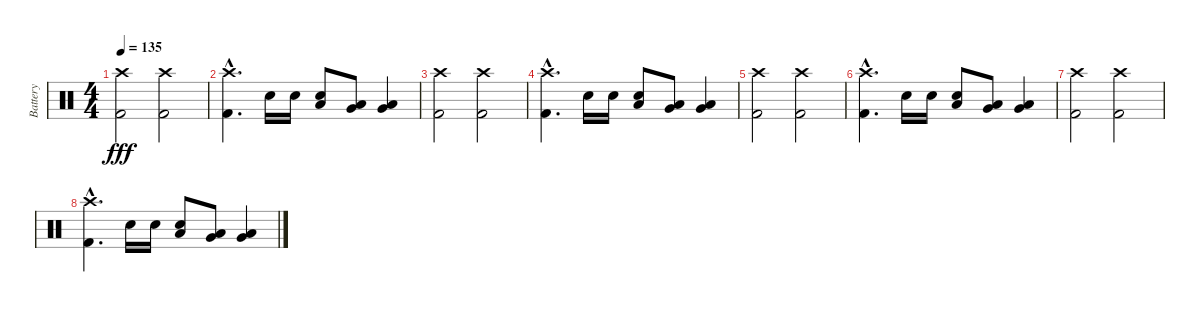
\track ("Battery" "Battery") {instrument percussion}
\staff {score}
\articulation defaults
\ts (4 4)
\tempo 135
\clef neutral
\ks c
("Crash high (hit)" "Kick (hit) 2").2{dy fff} ("Crash high (hit)" "Kick (hit) 2").2 |
("Crash high (hit)"{hac} "Kick (hit) 2"{hac}).4{d} "Electric Snare (hit)".16 "Electric Snare (hit)".16 ("Low Tom (hit)" "Electric Snare (hit)").8 ("Very Low Tom (hit)" "Low Tom (hit)").8 ("Low Floor Tom (hit)" "Very Low Tom (hit)").4 |
("Crash high (hit)" "Kick (hit) 2").2 ("Crash high (hit)" "Kick (hit) 2").2 |
("Crash high (hit)"{hac} "Kick (hit) 2"{hac}).4{d} "Electric Snare (hit)".16 "Electric Snare (hit)".16 ("Low Tom (hit)" "Electric Snare (hit)").8 ("Very Low Tom (hit)" "Low Tom (hit)").8 ("Low Floor Tom (hit)" "Very Low Tom (hit)").4 |
("Crash high (hit)" "Kick (hit) 2").2 ("Crash high (hit)" "Kick (hit) 2").2 |
("Crash high (hit)"{hac} "Kick (hit) 2"{hac}).4{d} "Electric Snare (hit)".16 "Electric Snare (hit)".16 ("Low Tom (hit)" "Electric Snare (hit)").8 ("Very Low Tom (hit)" "Low Tom (hit)").8 ("Low Floor Tom (hit)" "Very Low Tom (hit)").4 |
("Crash high (hit)" "Kick (hit) 2").2 ("Crash high (hit)" "Kick (hit) 2").2 |
("Crash high (hit)"{hac} "Kick (hit) 2"{hac}).4{d} "Electric Snare (hit)".16 "Electric Snare (hit)".16 ("Low Tom (hit)" "Electric Snare (hit)").8 ("Very Low Tom (hit)" "Low Tom (hit)").8 ("Low Floor Tom (hit)" "Very Low Tom (hit)").4
